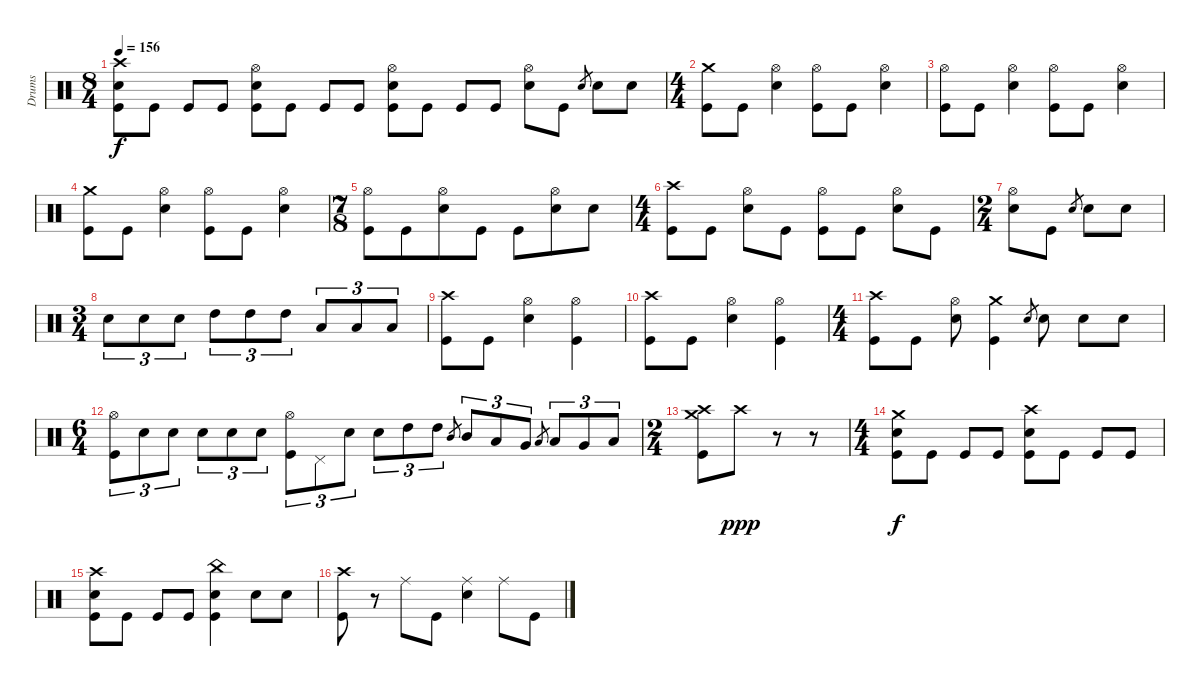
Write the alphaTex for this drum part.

\track ("Drums" "Drums") {instrument percussion}
\staff {score}
\articulation defaults
\ts (8 4)
\tempo 156
\clef neutral
\ks c
("Crash high (hit)" "Electric Snare (hit)" "Kick (hit)").8{dy f} "Kick (hit)".8 "Kick (hit)".8 "Kick (hit)".8 ("Hi-Hat (open)" "Electric Snare (hit)" "Kick (hit)").8 "Kick (hit)".8 "Kick (hit)".8 "Kick (hit)".8 ("Hi-Hat (open)" "Electric Snare (hit)" "Kick (hit)").8 "Kick (hit)".8 "Kick (hit)".8 "Kick (hit)".8 ("Hi-Hat (open)" "Electric Snare (hit)").8 "Kick (hit)".8 "Electric Snare (hit)".8{gr} "Electric Snare (hit)".8 "Electric Snare (hit)".8 |
\ts (4 4)
("Crash medium (hit)" "Kick (hit)").8 "Kick (hit)".8 ("Hi-Hat (open)" "Electric Snare (hit)").4 ("Hi-Hat (open)" "Kick (hit)").8 "Kick (hit)".8 ("Hi-Hat (open)" "Electric Snare (hit)").4 |
("Hi-Hat (open)" "Kick (hit)").8 "Kick (hit)".8 ("Hi-Hat (open)" "Electric Snare (hit)").4 ("Hi-Hat (open)" "Kick (hit)").8 "Kick (hit)".8 ("Hi-Hat (open)" "Electric Snare (hit)").4 |
("Crash medium (hit)" "Kick (hit)").8 "Kick (hit)".8 ("Hi-Hat (open)" "Electric Snare (hit)").4 ("Hi-Hat (open)" "Kick (hit)").8 "Kick (hit)".8 ("Hi-Hat (open)" "Electric Snare (hit)").4 |
\ts (7 8)
("Hi-Hat (open)" "Kick (hit)").8 "Kick (hit)".8 ("Hi-Hat (open)" "Electric Snare (hit)").8 "Kick (hit)".8 "Kick (hit)".8 ("Hi-Hat (open)" "Electric Snare (hit)").8 "Electric Snare (hit)".8 |
\ts (4 4)
("Crash high (hit)" "Kick (hit)").8 "Kick (hit)".8 ("Hi-Hat (open)" "Electric Snare (hit)").8 "Kick (hit)".8 ("Hi-Hat (open)" "Kick (hit)").8 "Kick (hit)".8 ("Hi-Hat (open)" "Electric Snare (hit)").8 "Kick (hit)".8 |
\ts (2 4)
("Hi-Hat (open)" "Electric Snare (hit)").8 "Kick (hit)".8 "Electric Snare (hit)".8{gr} "Electric Snare (hit)".8 "Electric Snare (hit)".8 |
\ts (3 4)
"Electric Snare (hit)".8{tu (3 2)} "Electric Snare (hit)".8{tu (3 2)} "Electric Snare (hit)".8{tu (3 2)} "High Tom (hit)".8{tu (3 2)} "High Tom (hit)".8{tu (3 2)} "High Tom (hit)".8{tu (3 2)} "Low Tom (hit)".8{tu (3 2)} "Low Tom (hit)".8{tu (3 2)} "Low Tom (hit)".8{tu (3 2)} |
("Crash high (hit)" "Kick (hit)").8 "Kick (hit)".8 ("Hi-Hat (open)" "Electric Snare (hit)").4 ("Hi-Hat (open)" "Kick (hit)").4 |
("Crash high (hit)" "Kick (hit)").8 "Kick (hit)".8 ("Hi-Hat (open)" "Electric Snare (hit)").4 ("Hi-Hat (open)" "Kick (hit)").4 |
\ts (4 4)
("Crash high (hit)" "Kick (hit)").8 "Kick (hit)".8 ("Hi-Hat (open)" "Electric Snare (hit)").8 ("Crash medium (hit)" "Kick (hit)").4 "Electric Snare (hit)".8{gr} "Electric Snare (hit)".8 "Electric Snare (hit)".8 "Electric Snare (hit)".8 |
\ts (6 4)
("Hi-Hat (open)" "Kick (hit)").8{tu (3 2)} "Electric Snare (hit)".8{tu (3 2)} "Electric Snare (hit)".8{tu (3 2)} "Electric Snare (hit)".8{tu (3 2)} "Electric Snare (hit)".8{tu (3 2)} "Electric Snare (hit)".8{tu (3 2)} ("Hi-Hat (open)" "Kick (hit)").8{tu (3 2)} "Pedal Hi-Hat (hit)".8{tu (3 2)} "Electric Snare (hit)".8{tu (3 2)} "Electric Snare (hit)".8{tu (3 2)} "High Tom (hit)".8{tu (3 2)} "High Tom (hit)".8{tu (3 2)} "Mid Tom (hit)".8{gr} "Mid Tom (hit)".8{tu (3 2)} "Low Tom (hit)".8{tu (3 2)} "Very Low Tom (hit)".8{tu (3 2)} "Low Tom (hit)".8{gr} "Low Tom (hit)".8{tu (3 2)} "Very Low Tom (hit)".8{tu (3 2)} "Low Floor Tom (hit)".8{tu (3 2)} |
\ts (2 4)
("Crash high (hit)" "Crash medium (hit)" "Kick (hit)").8 "Crash high (hit)".8{dy ppp} r.8 r.8 |
\ts (4 4)
("Crash medium (hit)" "Electric Snare (hit)" "Kick (hit)").8{dy f} "Kick (hit)".8 "Kick (hit)".8 "Kick (hit)".8 ("Crash high (hit)" "Electric Snare (hit)" "Kick (hit)").8 "Kick (hit)".8 "Kick (hit)".8 "Kick (hit)".8 |
("Crash high (hit)" "Electric Snare (hit)" "Kick (hit)").8 "Kick (hit)".8 "Kick (hit)".8 "Kick (hit)".8 ("China (hit)" "Electric Snare (hit)" "Kick (hit)").4 "Electric Snare (hit)".8 "Electric Snare (hit)".8 |
("Crash high (hit)" "Kick (hit)").8 r.8 "Ride (middle)".8 "Kick (hit)".8 ("Ride (middle)" "Electric Snare (hit)").4 "Ride (middle)".8 "Kick (hit)".8
